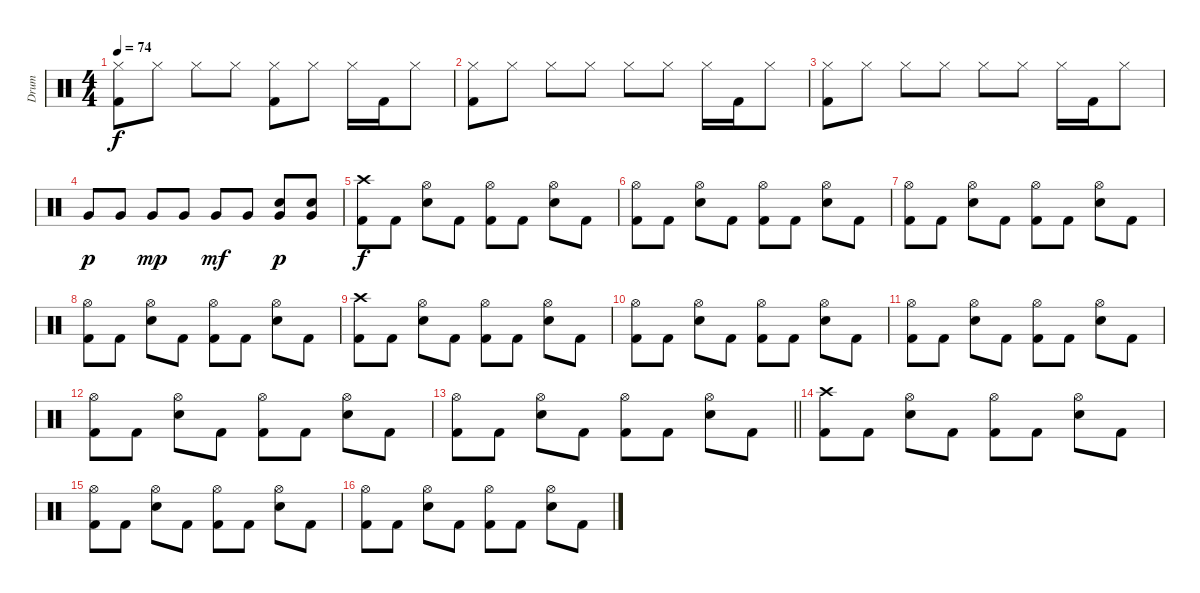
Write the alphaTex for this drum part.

\track ("Drum" "Drum") {instrument percussion}
\staff {score}
\articulation defaults
\ts (4 4)
\tempo 74
\clef neutral
\ks c
("Kick (hit) 2" "Hi-Hat (closed)").8{dy f} "Hi-Hat (closed)".8 "Hi-Hat (closed)".8 "Hi-Hat (closed)".8 ("Hi-Hat (closed)" "Kick (hit) 2").8 "Hi-Hat (closed)".8 "Hi-Hat (closed)".16 "Kick (hit) 2".16 "Hi-Hat (closed)".8 |
("Kick (hit) 2" "Hi-Hat (closed)").8 "Hi-Hat (closed)".8 "Hi-Hat (closed)".8 "Hi-Hat (closed)".8 "Hi-Hat (closed)".8 "Hi-Hat (closed)".8 "Hi-Hat (closed)".16 "Kick (hit) 2".16 "Hi-Hat (closed)".8 |
("Kick (hit) 2" "Hi-Hat (closed)").8 "Hi-Hat (closed)".8 "Hi-Hat (closed)".8 "Hi-Hat (closed)".8 "Hi-Hat (closed)".8 "Hi-Hat (closed)".8 "Hi-Hat (closed)".16 "Kick (hit) 2".16 "Hi-Hat (closed)".8 |
"Very Low Tom (hit)".8{dy p} "Very Low Tom (hit)".8 "Very Low Tom (hit)".8{dy mp} "Very Low Tom (hit)".8 "Very Low Tom (hit)".8{dy mf} "Very Low Tom (hit)".8 ("Snare (hit) 2" "Very Low Tom (hit)").8{dy p} ("Snare (hit) 2" "Very Low Tom (hit)").8 |
("Kick (hit) 2" "Crash high (hit)").8{dy f} "Kick (hit) 2".8 ("Snare (hit) 2" "Hi-Hat (open)").8 "Kick (hit) 2".8 ("Kick (hit) 2" "Hi-Hat (open)").8 "Kick (hit) 2".8 ("Snare (hit) 2" "Hi-Hat (open)").8 "Kick (hit) 2".8 |
("Hi-Hat (open)" "Kick (hit) 2").8 "Kick (hit) 2".8 ("Snare (hit) 2" "Hi-Hat (open)").8 "Kick (hit) 2".8 ("Kick (hit) 2" "Hi-Hat (open)").8 "Kick (hit) 2".8 ("Snare (hit) 2" "Hi-Hat (open)").8 "Kick (hit) 2".8 |
("Hi-Hat (open)" "Kick (hit) 2").8 "Kick (hit) 2".8 ("Snare (hit) 2" "Hi-Hat (open)").8 "Kick (hit) 2".8 ("Kick (hit) 2" "Hi-Hat (open)").8 "Kick (hit) 2".8 ("Snare (hit) 2" "Hi-Hat (open)").8 "Kick (hit) 2".8 |
("Hi-Hat (open)" "Kick (hit) 2").8 "Kick (hit) 2".8 ("Snare (hit) 2" "Hi-Hat (open)").8 "Kick (hit) 2".8 ("Kick (hit) 2" "Hi-Hat (open)").8 "Kick (hit) 2".8 ("Snare (hit) 2" "Hi-Hat (open)").8 "Kick (hit) 2".8 |
("Kick (hit) 2" "Crash high (hit)").8 "Kick (hit) 2".8 ("Snare (hit) 2" "Hi-Hat (open)").8 "Kick (hit) 2".8 ("Kick (hit) 2" "Hi-Hat (open)").8 "Kick (hit) 2".8 ("Snare (hit) 2" "Hi-Hat (open)").8 "Kick (hit) 2".8 |
("Hi-Hat (open)" "Kick (hit) 2").8 "Kick (hit) 2".8 ("Snare (hit) 2" "Hi-Hat (open)").8 "Kick (hit) 2".8 ("Kick (hit) 2" "Hi-Hat (open)").8 "Kick (hit) 2".8 ("Snare (hit) 2" "Hi-Hat (open)").8 "Kick (hit) 2".8 |
("Hi-Hat (open)" "Kick (hit) 2").8 "Kick (hit) 2".8 ("Snare (hit) 2" "Hi-Hat (open)").8 "Kick (hit) 2".8 ("Kick (hit) 2" "Hi-Hat (open)").8 "Kick (hit) 2".8 ("Snare (hit) 2" "Hi-Hat (open)").8 "Kick (hit) 2".8 |
("Hi-Hat (open)" "Kick (hit) 2").8 "Kick (hit) 2".8 ("Snare (hit) 2" "Hi-Hat (open)").8 "Kick (hit) 2".8 ("Kick (hit) 2" "Hi-Hat (open)").8 "Kick (hit) 2".8 ("Snare (hit) 2" "Hi-Hat (open)").8 "Kick (hit) 2".8 |
\barLineRight lightlight
("Hi-Hat (open)" "Kick (hit) 2").8 "Kick (hit) 2".8 ("Snare (hit) 2" "Hi-Hat (open)").8 "Kick (hit) 2".8 ("Kick (hit) 2" "Hi-Hat (open)").8 "Kick (hit) 2".8 ("Snare (hit) 2" "Hi-Hat (open)").8 "Kick (hit) 2".8 |
("Kick (hit) 2" "Crash high (hit)").8 "Kick (hit) 2".8 ("Snare (hit) 2" "Hi-Hat (open)").8 "Kick (hit) 2".8 ("Kick (hit) 2" "Hi-Hat (open)").8 "Kick (hit) 2".8 ("Snare (hit) 2" "Hi-Hat (open)").8 "Kick (hit) 2".8 |
("Hi-Hat (open)" "Kick (hit) 2").8 "Kick (hit) 2".8 ("Snare (hit) 2" "Hi-Hat (open)").8 "Kick (hit) 2".8 ("Kick (hit) 2" "Hi-Hat (open)").8 "Kick (hit) 2".8 ("Snare (hit) 2" "Hi-Hat (open)").8 "Kick (hit) 2".8 |
("Hi-Hat (open)" "Kick (hit) 2").8 "Kick (hit) 2".8 ("Snare (hit) 2" "Hi-Hat (open)").8 "Kick (hit) 2".8 ("Kick (hit) 2" "Hi-Hat (open)").8 "Kick (hit) 2".8 ("Snare (hit) 2" "Hi-Hat (open)").8 "Kick (hit) 2".8
